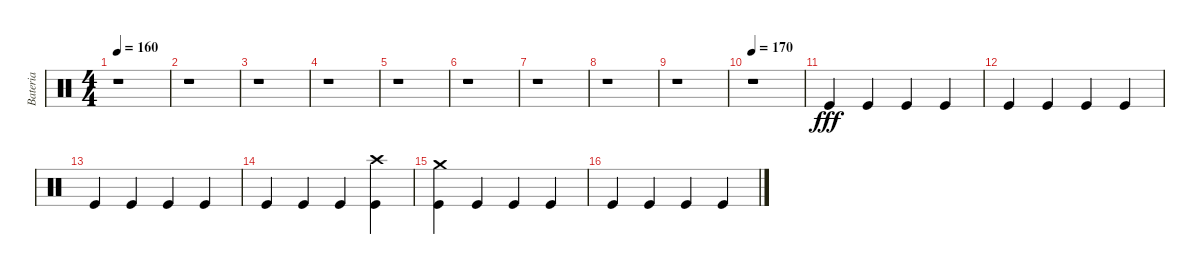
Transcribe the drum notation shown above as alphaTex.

\track ("Bateria" "Bateria") {instrument percussion}
\staff {score}
\articulation defaults
\ts (4 4)
\tempo 160
\clef neutral
\ks c
r.1{dy fff} |
r.1 |
r.1 |
r.1 |
r.1 |
r.1 |
r.1 |
r.1 |
r.1 |
\tempo 170
r.1 |
"Kick (hit)".4 "Kick (hit)".4 "Kick (hit)".4 "Kick (hit)".4 |
"Kick (hit)".4 "Kick (hit)".4 "Kick (hit)".4 "Kick (hit)".4 |
"Kick (hit)".4 "Kick (hit)".4 "Kick (hit)".4 "Kick (hit)".4 |
"Kick (hit)".4 "Kick (hit)".4 "Kick (hit)".4 ("Kick (hit)" "Crash high (hit)").4 |
("Kick (hit)" "Crash medium (hit)").4 "Kick (hit)".4 "Kick (hit)".4 "Kick (hit)".4 |
"Kick (hit)".4 "Kick (hit)".4 "Kick (hit)".4 "Kick (hit)".4
